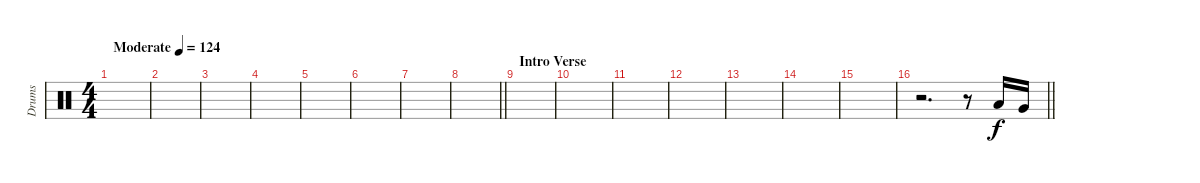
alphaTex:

\track ("Drums" "Drums") {instrument percussion}
\staff {score}
\articulation defaults
\ts (4 4)
\tempo (124 "Moderate")
\clef neutral
\ks c
|
|
|
|
|
|
|
\barLineRight lightlight
|
\section ("" "Intro Verse")
|
|
|
|
|
|
|
\barLineRight lightlight
r.2{d} r.8 "Low Tom (hit)".16 "Very Low Tom (hit)".16
